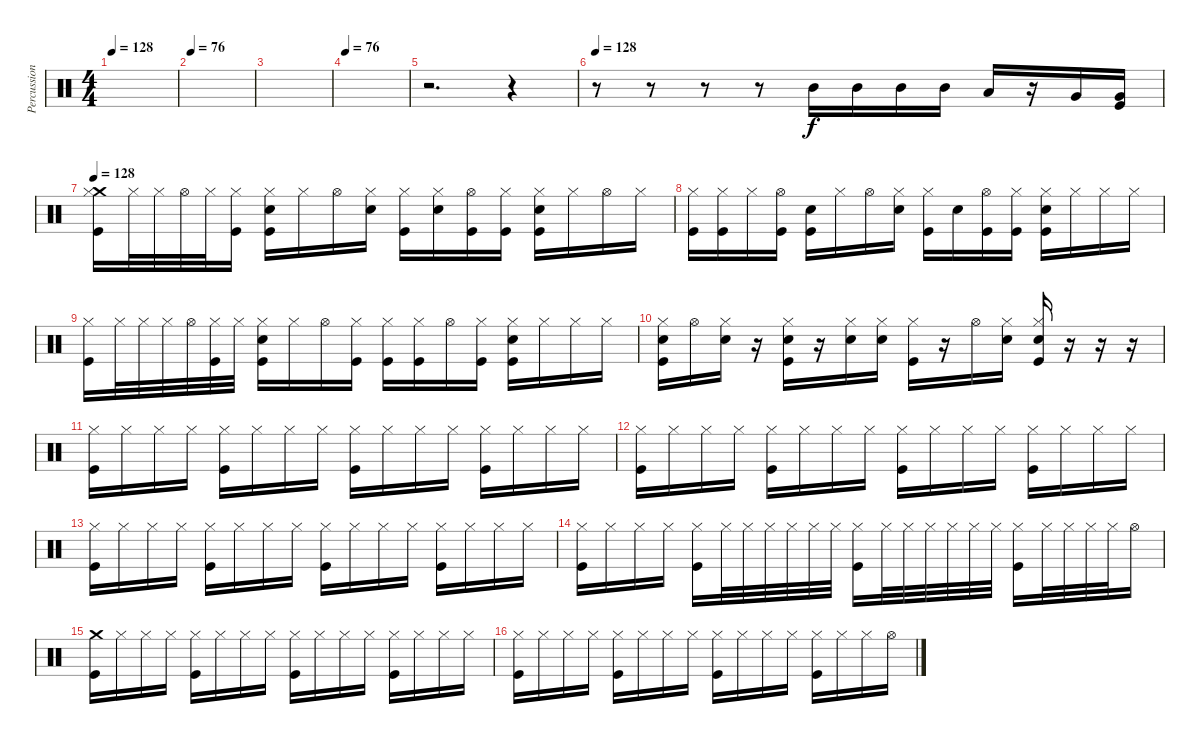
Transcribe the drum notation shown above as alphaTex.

\track ("Percussion" "Percussion") {instrument percussion}
\staff {score}
\articulation defaults
\ts (4 4)
\tempo 128
\tempo 76
\tempo 128
\clef neutral
\ks c
|
\tempo 76
|
|
\tempo 76
|
r.2{d} r.4 |
\tempo 128
r.8 r.8 r.8 r.8 "Mid Tom (hit)".16 "Mid Tom (hit)".16 "Mid Tom (hit)".16 "Mid Tom (hit)".16 "Low Tom (hit)".16 r.16 "Very Low Tom (hit)".16 ("Kick (hit)" "Very Low Tom (hit)").16 |
\tempo 128
("Kick (hit)" "Crash medium (hit)" "Hi-Hat (closed)").16 "Hi-Hat (closed)".32 "Hi-Hat (closed)".32 "Hi-Hat (open)".32 "Hi-Hat (closed)".32 ("Kick (hit)" "Hi-Hat (closed)").16 ("Kick (hit)" "Snare (hit) 2" "Hi-Hat (closed)").16 "Hi-Hat (closed)".16 "Hi-Hat (open)".16 ("Snare (hit) 2" "Hi-Hat (closed)").16 ("Kick (hit)" "Hi-Hat (closed)").16 ("Snare (hit) 2" "Hi-Hat (closed)").16 ("Kick (hit)" "Hi-Hat (open)").16 ("Kick (hit)" "Hi-Hat (closed)").16 ("Kick (hit)" "Snare (hit) 2" "Hi-Hat (closed)").16 "Hi-Hat (closed)".16 "Hi-Hat (open)".16 "Hi-Hat (closed)".16 |
("Kick (hit)" "Hi-Hat (closed)").16 ("Kick (hit)" "Hi-Hat (closed)").16 "Hi-Hat (closed)".16 ("Kick (hit)" "Hi-Hat (open)").16 ("Kick (hit)" "Snare (hit) 2").16 "Hi-Hat (closed)".16 "Hi-Hat (open)".16 ("Snare (hit) 2" "Hi-Hat (closed)").16 ("Kick (hit)" "Hi-Hat (closed)").16 "Snare (hit) 2".16 ("Kick (hit)" "Hi-Hat (open)").16 ("Kick (hit)" "Hi-Hat (closed)").16 ("Kick (hit)" "Snare (hit) 2" "Hi-Hat (closed)").16 "Hi-Hat (closed)".16 "Hi-Hat (closed)".16 "Hi-Hat (closed)".16 |
("Kick (hit)" "Hi-Hat (closed)").16 "Hi-Hat (closed)".32 "Hi-Hat (closed)".32 "Hi-Hat (closed)".32 "Hi-Hat (open)".32 ("Kick (hit)" "Hi-Hat (closed)").32 "Hi-Hat (closed)".32 ("Kick (hit)" "Snare (hit) 2" "Hi-Hat (closed)").16 "Hi-Hat (closed)".16 "Hi-Hat (open)".16 ("Kick (hit)" "Hi-Hat (closed)").16 ("Kick (hit)" "Hi-Hat (closed)").16 ("Kick (hit)" "Hi-Hat (closed)").16 "Hi-Hat (open)".16 ("Kick (hit)" "Hi-Hat (closed)").16 ("Kick (hit)" "Snare (hit) 2" "Hi-Hat (closed)").16 "Hi-Hat (closed)".16 "Hi-Hat (closed)".16 "Hi-Hat (closed)".16 |
("Kick (hit)" "Snare (hit) 2" "Hi-Hat (closed)").16 "Hi-Hat (open)".16 ("Snare (hit) 2" "Hi-Hat (closed)").16 r.16 ("Kick (hit)" "Snare (hit) 2" "Hi-Hat (closed)").16 r.16 ("Snare (hit) 2" "Hi-Hat (closed)").16 ("Snare (hit) 2" "Hi-Hat (closed)").16 ("Kick (hit)" "Hi-Hat (closed)").16 r.16 "Hi-Hat (open)".16 ("Snare (hit) 2" "Hi-Hat (closed)").16 ("Kick (hit)" "Snare (hit) 2" "Hi-Hat (closed)").16 r.16 r.16 r.16 |
("Kick (hit)" "Hi-Hat (closed)").16 "Hi-Hat (closed)".16 "Hi-Hat (closed)".16 "Hi-Hat (closed)".16 ("Kick (hit)" "Hi-Hat (closed)").16 "Hi-Hat (closed)".16 "Hi-Hat (closed)".16 "Hi-Hat (closed)".16 ("Kick (hit)" "Hi-Hat (closed)").16 "Hi-Hat (closed)".16 "Hi-Hat (closed)".16 "Hi-Hat (closed)".16 ("Kick (hit)" "Hi-Hat (closed)").16 "Hi-Hat (closed)".16 "Hi-Hat (closed)".16 "Hi-Hat (closed)".16 |
("Kick (hit)" "Hi-Hat (closed)").16 "Hi-Hat (closed)".16 "Hi-Hat (closed)".16 "Hi-Hat (closed)".16 ("Kick (hit)" "Hi-Hat (closed)").16 "Hi-Hat (closed)".16 "Hi-Hat (closed)".16 "Hi-Hat (closed)".16 ("Kick (hit)" "Hi-Hat (closed)").16 "Hi-Hat (closed)".16 "Hi-Hat (closed)".16 "Hi-Hat (closed)".16 ("Kick (hit)" "Hi-Hat (closed)").16 "Hi-Hat (closed)".16 "Hi-Hat (closed)".16 "Hi-Hat (closed)".16 |
("Kick (hit)" "Hi-Hat (closed)").16 "Hi-Hat (closed)".16 "Hi-Hat (closed)".16 "Hi-Hat (closed)".16 ("Kick (hit)" "Hi-Hat (closed)").16 "Hi-Hat (closed)".16 "Hi-Hat (closed)".16 "Hi-Hat (closed)".16 ("Kick (hit)" "Hi-Hat (closed)").16 "Hi-Hat (closed)".16 "Hi-Hat (closed)".16 "Hi-Hat (closed)".16 ("Kick (hit)" "Hi-Hat (closed)").16 "Hi-Hat (closed)".16 "Hi-Hat (closed)".16 "Hi-Hat (closed)".16 |
("Kick (hit)" "Hi-Hat (closed)").16 "Hi-Hat (closed)".16 "Hi-Hat (closed)".16 "Hi-Hat (closed)".16 ("Kick (hit)" "Hi-Hat (closed)").16 "Hi-Hat (closed)".32 "Hi-Hat (closed)".32 "Hi-Hat (closed)".32 "Hi-Hat (closed)".32 "Hi-Hat (closed)".32 "Hi-Hat (closed)".32 ("Kick (hit)" "Hi-Hat (closed)").16 "Hi-Hat (closed)".32 "Hi-Hat (closed)".32 "Hi-Hat (closed)".32 "Hi-Hat (closed)".32 "Hi-Hat (closed)".32 "Hi-Hat (closed)".32 ("Kick (hit)" "Hi-Hat (closed)").16 "Hi-Hat (closed)".32 "Hi-Hat (closed)".32 "Hi-Hat (closed)".32 "Hi-Hat (closed)".32 "Hi-Hat (open)".16 |
("Kick (hit)" "Crash medium (hit)").16 "Hi-Hat (closed)".16 "Hi-Hat (closed)".16 "Hi-Hat (closed)".16 ("Kick (hit)" "Hi-Hat (closed)").16 "Hi-Hat (closed)".16 "Hi-Hat (closed)".16 "Hi-Hat (closed)".16 ("Kick (hit)" "Hi-Hat (closed)").16 "Hi-Hat (closed)".16 "Hi-Hat (closed)".16 "Hi-Hat (closed)".16 ("Kick (hit)" "Hi-Hat (closed)").16 "Hi-Hat (closed)".16 "Hi-Hat (closed)".16 "Hi-Hat (closed)".16 |
("Kick (hit)" "Hi-Hat (closed)").16 "Hi-Hat (closed)".16 "Hi-Hat (closed)".16 "Hi-Hat (closed)".16 ("Kick (hit)" "Hi-Hat (closed)").16 "Hi-Hat (closed)".16 "Hi-Hat (closed)".16 "Hi-Hat (closed)".16 ("Kick (hit)" "Hi-Hat (closed)").16 "Hi-Hat (closed)".16 "Hi-Hat (closed)".16 "Hi-Hat (closed)".16 ("Kick (hit)" "Hi-Hat (closed)").16 "Hi-Hat (closed)".16 "Hi-Hat (closed)".16 "Hi-Hat (open)".16
